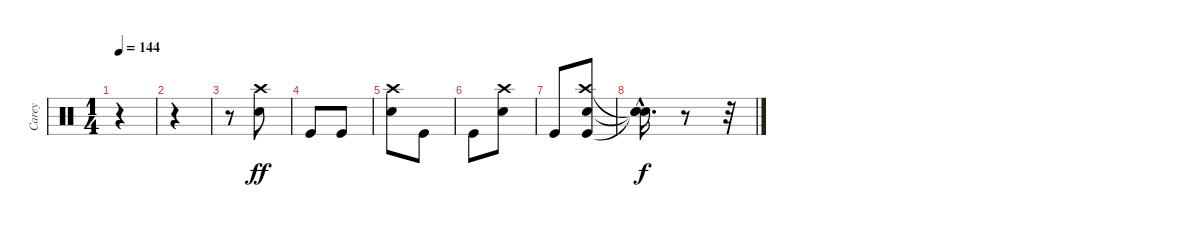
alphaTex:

\track ("Carey" "Carey") {instrument percussion}
\staff {score}
\articulation defaults
\ts (1 4)
\tempo 144
\clef neutral
\ks c
r.4{dy ff} |
r.4 |
r.8 ("Snare (hit) 2" "Crash high (hit)").8 |
"Kick (hit)".8 "Kick (hit)".8 |
("Snare (hit) 2" "Crash high (hit)").8 "Kick (hit)".8 |
"Kick (hit)".8 ("Snare (hit) 2" "Crash high (hit)").8 |
"Kick (hit)".8 ("Kick (hit)" "Snare (hit) 2" "Crash high (hit)").8 |
("Snare (hit)"{hac t} "Snare (hit)"{hac t} "Snare (hit)"{hac t}).16{d dy f} r.8 r.32
